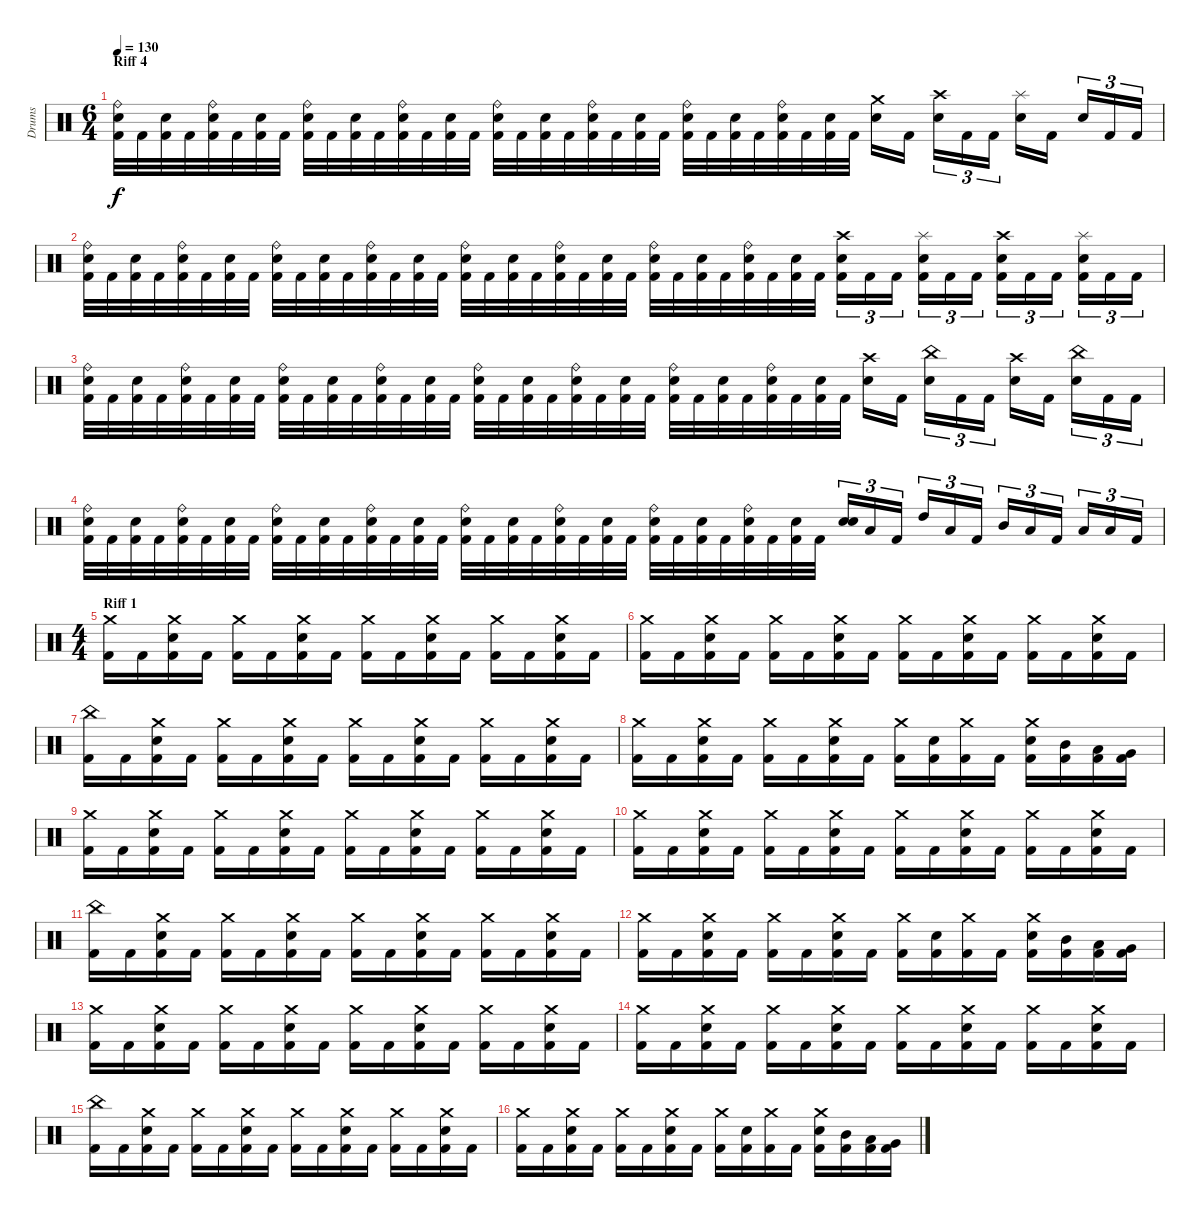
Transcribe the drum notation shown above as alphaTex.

\track ("Drums" "Drums") {instrument percussion}
\staff {score}
\articulation defaults
\ts (6 4)
\section ("" "Riff 4")
\tempo 130
\clef neutral
\ks c
("Kick (hit) 2" "Snare (hit) 2" "Ride (bell)").32{dy f} "Kick (hit) 2".32 ("Kick (hit) 2" "Snare (hit) 2").32 "Kick (hit) 2".32 ("Kick (hit) 2" "Snare (hit) 2" "Ride (bell)").32 "Kick (hit) 2".32 ("Kick (hit) 2" "Snare (hit) 2").32 "Kick (hit) 2".32 ("Kick (hit) 2" "Snare (hit) 2" "Ride (bell)").32 "Kick (hit) 2".32 ("Kick (hit) 2" "Snare (hit) 2").32 "Kick (hit) 2".32 ("Kick (hit) 2" "Snare (hit) 2" "Ride (bell)").32 "Kick (hit) 2".32 ("Kick (hit) 2" "Snare (hit) 2").32 "Kick (hit) 2".32 ("Kick (hit) 2" "Snare (hit) 2" "Ride (bell)").32 "Kick (hit) 2".32 ("Kick (hit) 2" "Snare (hit) 2").32 "Kick (hit) 2".32 ("Kick (hit) 2" "Snare (hit) 2" "Ride (bell)").32 "Kick (hit) 2".32 ("Kick (hit) 2" "Snare (hit) 2").32 "Kick (hit) 2".32 ("Kick (hit) 2" "Snare (hit) 2" "Ride (bell)").32 "Kick (hit) 2".32 ("Kick (hit) 2" "Snare (hit) 2").32 "Kick (hit) 2".32 ("Kick (hit) 2" "Snare (hit) 2" "Ride (bell)").32 "Kick (hit) 2".32 ("Kick (hit) 2" "Snare (hit) 2").32 "Kick (hit) 2".32 ("Snare (hit) 2" "Crash medium (hit)").16 "Kick (hit) 2".16 ("Snare (hit) 2" "Crash high (hit)").16{tu (3 2)} "Kick (hit) 2".16{tu (3 2)} "Kick (hit) 2".16{tu (3 2)} ("Snare (hit) 2" "Splash (hit)").16 "Kick (hit) 2".16 "Snare (hit) 2".16{tu (3 2)} "Kick (hit) 2".16{tu (3 2)} "Kick (hit) 2".16{tu (3 2)} |
("Kick (hit) 2" "Snare (hit) 2" "Ride (bell)").32 "Kick (hit) 2".32 ("Kick (hit) 2" "Snare (hit) 2").32 "Kick (hit) 2".32 ("Kick (hit) 2" "Snare (hit) 2" "Ride (bell)").32 "Kick (hit) 2".32 ("Kick (hit) 2" "Snare (hit) 2").32 "Kick (hit) 2".32 ("Kick (hit) 2" "Snare (hit) 2" "Ride (bell)").32 "Kick (hit) 2".32 ("Kick (hit) 2" "Snare (hit) 2").32 "Kick (hit) 2".32 ("Kick (hit) 2" "Snare (hit) 2" "Ride (bell)").32 "Kick (hit) 2".32 ("Kick (hit) 2" "Snare (hit) 2").32 "Kick (hit) 2".32 ("Kick (hit) 2" "Snare (hit) 2" "Ride (bell)").32 "Kick (hit) 2".32 ("Kick (hit) 2" "Snare (hit) 2").32 "Kick (hit) 2".32 ("Kick (hit) 2" "Snare (hit) 2" "Ride (bell)").32 "Kick (hit) 2".32 ("Kick (hit) 2" "Snare (hit) 2").32 "Kick (hit) 2".32 ("Kick (hit) 2" "Snare (hit) 2" "Ride (bell)").32 "Kick (hit) 2".32 ("Kick (hit) 2" "Snare (hit) 2").32 "Kick (hit) 2".32 ("Kick (hit) 2" "Snare (hit) 2" "Ride (bell)").32 "Kick (hit) 2".32 ("Kick (hit) 2" "Snare (hit) 2").32 "Kick (hit) 2".32 ("Kick (hit) 2" "Snare (hit) 2" "Crash high (hit)").16{tu (3 2)} "Kick (hit) 2".16{tu (3 2)} "Kick (hit) 2".16{tu (3 2)} ("Kick (hit) 2" "Snare (hit) 2" "Splash (hit)").16{tu (3 2)} "Kick (hit) 2".16{tu (3 2)} "Kick (hit) 2".16{tu (3 2)} ("Kick (hit) 2" "Snare (hit) 2" "Crash high (hit)").16{tu (3 2)} "Kick (hit) 2".16{tu (3 2)} "Kick (hit) 2".16{tu (3 2)} ("Kick (hit) 2" "Snare (hit) 2" "Splash (hit)").16{tu (3 2)} "Kick (hit) 2".16{tu (3 2)} "Kick (hit) 2".16{tu (3 2)} |
("Kick (hit) 2" "Snare (hit) 2" "Ride (bell)").32 "Kick (hit) 2".32 ("Kick (hit) 2" "Snare (hit) 2").32 "Kick (hit) 2".32 ("Kick (hit) 2" "Snare (hit) 2" "Ride (bell)").32 "Kick (hit) 2".32 ("Kick (hit) 2" "Snare (hit) 2").32 "Kick (hit) 2".32 ("Kick (hit) 2" "Snare (hit) 2" "Ride (bell)").32 "Kick (hit) 2".32 ("Kick (hit) 2" "Snare (hit) 2").32 "Kick (hit) 2".32 ("Kick (hit) 2" "Snare (hit) 2" "Ride (bell)").32 "Kick (hit) 2".32 ("Kick (hit) 2" "Snare (hit) 2").32 "Kick (hit) 2".32 ("Kick (hit) 2" "Snare (hit) 2" "Ride (bell)").32 "Kick (hit) 2".32 ("Kick (hit) 2" "Snare (hit) 2").32 "Kick (hit) 2".32 ("Kick (hit) 2" "Snare (hit) 2" "Ride (bell)").32 "Kick (hit) 2".32 ("Kick (hit) 2" "Snare (hit) 2").32 "Kick (hit) 2".32 ("Kick (hit) 2" "Snare (hit) 2" "Ride (bell)").32 "Kick (hit) 2".32 ("Kick (hit) 2" "Snare (hit) 2").32 "Kick (hit) 2".32 ("Kick (hit) 2" "Snare (hit) 2" "Ride (bell)").32 "Kick (hit) 2".32 ("Kick (hit) 2" "Snare (hit) 2").32 "Kick (hit) 2".32 ("Snare (hit) 2" "Crash high (hit)").16 "Kick (hit) 2".16 ("Snare (hit) 2" "China (hit)").16{tu (3 2)} "Kick (hit) 2".16{tu (3 2)} "Kick (hit) 2".16{tu (3 2)} ("Snare (hit) 2" "Crash high (hit)").16 "Kick (hit) 2".16 ("Snare (hit) 2" "China (hit)").16{tu (3 2)} "Kick (hit) 2".16{tu (3 2)} "Kick (hit) 2".16{tu (3 2)} |
("Kick (hit) 2" "Snare (hit) 2" "Ride (bell)").32 "Kick (hit) 2".32 ("Kick (hit) 2" "Snare (hit) 2").32 "Kick (hit) 2".32 ("Kick (hit) 2" "Snare (hit) 2" "Ride (bell)").32 "Kick (hit) 2".32 ("Kick (hit) 2" "Snare (hit) 2").32 "Kick (hit) 2".32 ("Kick (hit) 2" "Snare (hit) 2" "Ride (bell)").32 "Kick (hit) 2".32 ("Kick (hit) 2" "Snare (hit) 2").32 "Kick (hit) 2".32 ("Kick (hit) 2" "Snare (hit) 2" "Ride (bell)").32 "Kick (hit) 2".32 ("Kick (hit) 2" "Snare (hit) 2").32 "Kick (hit) 2".32 ("Kick (hit) 2" "Snare (hit) 2" "Ride (bell)").32 "Kick (hit) 2".32 ("Kick (hit) 2" "Snare (hit) 2").32 "Kick (hit) 2".32 ("Kick (hit) 2" "Snare (hit) 2" "Ride (bell)").32 "Kick (hit) 2".32 ("Kick (hit) 2" "Snare (hit) 2").32 "Kick (hit) 2".32 ("Kick (hit) 2" "Snare (hit) 2" "Ride (bell)").32 "Kick (hit) 2".32 ("Kick (hit) 2" "Snare (hit) 2").32 "Kick (hit) 2".32 ("Kick (hit) 2" "Snare (hit) 2" "Ride (bell)").32 "Kick (hit) 2".32 ("Kick (hit) 2" "Snare (hit) 2").32 "Kick (hit) 2".32 ("Snare (hit) 2" "Electric Snare (hit)").16{tu (3 2)} "Low Floor Tom (hit)".16{tu (3 2)} "Kick (hit) 2".16{tu (3 2)} "High Tom (hit)".16{tu (3 2)} "Low Floor Tom (hit)".16{tu (3 2)} "Kick (hit) 2".16{tu (3 2)} "Mid Tom (hit)".16{tu (3 2)} "Low Floor Tom (hit)".16{tu (3 2)} "Kick (hit) 2".16{tu (3 2)} "Low Tom (hit)".16{tu (3 2)} "Low Floor Tom (hit)".16{tu (3 2)} "Kick (hit) 2".16{tu (3 2)} |
\ts (4 4)
\section ("" "Riff 1")
("Kick (hit) 2" "Crash medium (hit)").16 "Kick (hit) 2".16 ("Kick (hit) 2" "Snare (hit) 2" "Crash medium (hit)").16 "Kick (hit) 2".16 ("Kick (hit) 2" "Crash medium (hit)").16 "Kick (hit) 2".16 ("Kick (hit) 2" "Snare (hit) 2" "Crash medium (hit)").16 "Kick (hit) 2".16 ("Kick (hit) 2" "Crash medium (hit)").16 "Kick (hit) 2".16 ("Kick (hit) 2" "Snare (hit) 2" "Crash medium (hit)").16 "Kick (hit) 2".16 ("Kick (hit) 2" "Crash medium (hit)").16 "Kick (hit) 2".16 ("Kick (hit) 2" "Snare (hit) 2" "Crash medium (hit)").16 "Kick (hit) 2".16 |
("Kick (hit) 2" "Crash medium (hit)").16 "Kick (hit) 2".16 ("Kick (hit) 2" "Snare (hit) 2" "Crash medium (hit)").16 "Kick (hit) 2".16 ("Kick (hit) 2" "Crash medium (hit)").16 "Kick (hit) 2".16 ("Kick (hit) 2" "Snare (hit) 2" "Crash medium (hit)").16 "Kick (hit) 2".16 ("Kick (hit) 2" "Crash medium (hit)").16 "Kick (hit) 2".16 ("Kick (hit) 2" "Snare (hit) 2" "Crash medium (hit)").16 "Kick (hit) 2".16 ("Kick (hit) 2" "Crash medium (hit)").16 "Kick (hit) 2".16 ("Kick (hit) 2" "Snare (hit) 2" "Crash medium (hit)").16 "Kick (hit) 2".16 |
("Kick (hit) 2" "China (hit)").16 "Kick (hit) 2".16 ("Kick (hit) 2" "Snare (hit) 2" "Crash medium (hit)").16 "Kick (hit) 2".16 ("Kick (hit) 2" "Crash medium (hit)").16 "Kick (hit) 2".16 ("Kick (hit) 2" "Snare (hit) 2" "Crash medium (hit)").16 "Kick (hit) 2".16 ("Kick (hit) 2" "Crash medium (hit)").16 "Kick (hit) 2".16 ("Kick (hit) 2" "Snare (hit) 2" "Crash medium (hit)").16 "Kick (hit) 2".16 ("Kick (hit) 2" "Crash medium (hit)").16 "Kick (hit) 2".16 ("Kick (hit) 2" "Snare (hit) 2" "Crash medium (hit)").16 "Kick (hit) 2".16 |
("Kick (hit) 2" "Crash medium (hit)").16 "Kick (hit) 2".16 ("Kick (hit) 2" "Snare (hit) 2" "Crash medium (hit)").16 "Kick (hit) 2".16 ("Kick (hit) 2" "Crash medium (hit)").16 "Kick (hit) 2".16 ("Kick (hit) 2" "Snare (hit) 2" "Crash medium (hit)").16 "Kick (hit) 2".16 ("Kick (hit) 2" "Crash medium (hit)").16 ("Kick (hit) 2" "Snare (hit) 2").16 ("Kick (hit) 2" "Crash medium (hit)").16 "Kick (hit) 2".16 ("Kick (hit) 2" "Snare (hit) 2" "Crash medium (hit)").16 ("Kick (hit) 2" "Mid Tom (hit)").16 ("Kick (hit) 2" "Low Tom (hit)").16 ("Kick (hit) 2" "Very Low Tom (hit)").16 |
("Kick (hit) 2" "Crash medium (hit)").16 "Kick (hit) 2".16 ("Kick (hit) 2" "Snare (hit) 2" "Crash medium (hit)").16 "Kick (hit) 2".16 ("Kick (hit) 2" "Crash medium (hit)").16 "Kick (hit) 2".16 ("Kick (hit) 2" "Snare (hit) 2" "Crash medium (hit)").16 "Kick (hit) 2".16 ("Kick (hit) 2" "Crash medium (hit)").16 "Kick (hit) 2".16 ("Kick (hit) 2" "Snare (hit) 2" "Crash medium (hit)").16 "Kick (hit) 2".16 ("Kick (hit) 2" "Crash medium (hit)").16 "Kick (hit) 2".16 ("Kick (hit) 2" "Snare (hit) 2" "Crash medium (hit)").16 "Kick (hit) 2".16 |
("Kick (hit) 2" "Crash medium (hit)").16 "Kick (hit) 2".16 ("Kick (hit) 2" "Snare (hit) 2" "Crash medium (hit)").16 "Kick (hit) 2".16 ("Kick (hit) 2" "Crash medium (hit)").16 "Kick (hit) 2".16 ("Kick (hit) 2" "Snare (hit) 2" "Crash medium (hit)").16 "Kick (hit) 2".16 ("Kick (hit) 2" "Crash medium (hit)").16 "Kick (hit) 2".16 ("Kick (hit) 2" "Snare (hit) 2" "Crash medium (hit)").16 "Kick (hit) 2".16 ("Kick (hit) 2" "Crash medium (hit)").16 "Kick (hit) 2".16 ("Kick (hit) 2" "Snare (hit) 2" "Crash medium (hit)").16 "Kick (hit) 2".16 |
("Kick (hit) 2" "China (hit)").16 "Kick (hit) 2".16 ("Kick (hit) 2" "Snare (hit) 2" "Crash medium (hit)").16 "Kick (hit) 2".16 ("Kick (hit) 2" "Crash medium (hit)").16 "Kick (hit) 2".16 ("Kick (hit) 2" "Snare (hit) 2" "Crash medium (hit)").16 "Kick (hit) 2".16 ("Kick (hit) 2" "Crash medium (hit)").16 "Kick (hit) 2".16 ("Kick (hit) 2" "Snare (hit) 2" "Crash medium (hit)").16 "Kick (hit) 2".16 ("Kick (hit) 2" "Crash medium (hit)").16 "Kick (hit) 2".16 ("Kick (hit) 2" "Snare (hit) 2" "Crash medium (hit)").16 "Kick (hit) 2".16 |
("Kick (hit) 2" "Crash medium (hit)").16 "Kick (hit) 2".16 ("Kick (hit) 2" "Snare (hit) 2" "Crash medium (hit)").16 "Kick (hit) 2".16 ("Kick (hit) 2" "Crash medium (hit)").16 "Kick (hit) 2".16 ("Kick (hit) 2" "Snare (hit) 2" "Crash medium (hit)").16 "Kick (hit) 2".16 ("Kick (hit) 2" "Crash medium (hit)").16 ("Kick (hit) 2" "Snare (hit) 2").16 ("Kick (hit) 2" "Crash medium (hit)").16 "Kick (hit) 2".16 ("Kick (hit) 2" "Snare (hit) 2" "Crash medium (hit)").16 ("Kick (hit) 2" "Mid Tom (hit)").16 ("Kick (hit) 2" "Low Tom (hit)").16 ("Kick (hit) 2" "Very Low Tom (hit)").16 |
("Kick (hit) 2" "Crash medium (hit)").16 "Kick (hit) 2".16 ("Kick (hit) 2" "Snare (hit) 2" "Crash medium (hit)").16 "Kick (hit) 2".16 ("Kick (hit) 2" "Crash medium (hit)").16 "Kick (hit) 2".16 ("Kick (hit) 2" "Snare (hit) 2" "Crash medium (hit)").16 "Kick (hit) 2".16 ("Kick (hit) 2" "Crash medium (hit)").16 "Kick (hit) 2".16 ("Kick (hit) 2" "Snare (hit) 2" "Crash medium (hit)").16 "Kick (hit) 2".16 ("Kick (hit) 2" "Crash medium (hit)").16 "Kick (hit) 2".16 ("Kick (hit) 2" "Snare (hit) 2" "Crash medium (hit)").16 "Kick (hit) 2".16 |
("Kick (hit) 2" "Crash medium (hit)").16 "Kick (hit) 2".16 ("Kick (hit) 2" "Snare (hit) 2" "Crash medium (hit)").16 "Kick (hit) 2".16 ("Kick (hit) 2" "Crash medium (hit)").16 "Kick (hit) 2".16 ("Kick (hit) 2" "Snare (hit) 2" "Crash medium (hit)").16 "Kick (hit) 2".16 ("Kick (hit) 2" "Crash medium (hit)").16 "Kick (hit) 2".16 ("Kick (hit) 2" "Snare (hit) 2" "Crash medium (hit)").16 "Kick (hit) 2".16 ("Kick (hit) 2" "Crash medium (hit)").16 "Kick (hit) 2".16 ("Kick (hit) 2" "Snare (hit) 2" "Crash medium (hit)").16 "Kick (hit) 2".16 |
("Kick (hit) 2" "China (hit)").16 "Kick (hit) 2".16 ("Kick (hit) 2" "Snare (hit) 2" "Crash medium (hit)").16 "Kick (hit) 2".16 ("Kick (hit) 2" "Crash medium (hit)").16 "Kick (hit) 2".16 ("Kick (hit) 2" "Snare (hit) 2" "Crash medium (hit)").16 "Kick (hit) 2".16 ("Kick (hit) 2" "Crash medium (hit)").16 "Kick (hit) 2".16 ("Kick (hit) 2" "Snare (hit) 2" "Crash medium (hit)").16 "Kick (hit) 2".16 ("Kick (hit) 2" "Crash medium (hit)").16 "Kick (hit) 2".16 ("Kick (hit) 2" "Snare (hit) 2" "Crash medium (hit)").16 "Kick (hit) 2".16 |
("Kick (hit) 2" "Crash medium (hit)").16 "Kick (hit) 2".16 ("Kick (hit) 2" "Snare (hit) 2" "Crash medium (hit)").16 "Kick (hit) 2".16 ("Kick (hit) 2" "Crash medium (hit)").16 "Kick (hit) 2".16 ("Kick (hit) 2" "Snare (hit) 2" "Crash medium (hit)").16 "Kick (hit) 2".16 ("Kick (hit) 2" "Crash medium (hit)").16 ("Kick (hit) 2" "Snare (hit) 2").16 ("Kick (hit) 2" "Crash medium (hit)").16 "Kick (hit) 2".16 ("Kick (hit) 2" "Snare (hit) 2" "Crash medium (hit)").16 ("Kick (hit) 2" "Mid Tom (hit)").16 ("Kick (hit) 2" "Low Tom (hit)").16 ("Kick (hit) 2" "Very Low Tom (hit)").16
